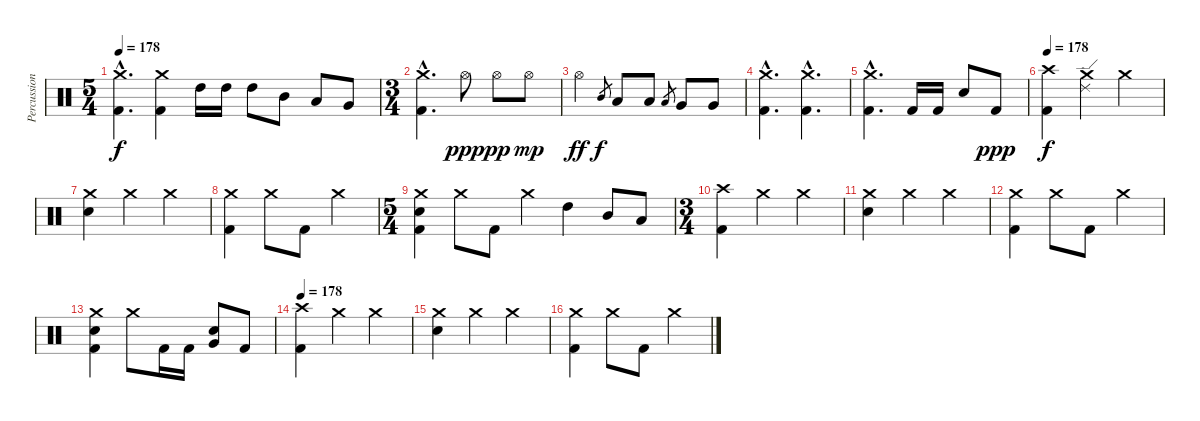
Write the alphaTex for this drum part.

\track ("Percussion" "Percussion") {instrument percussion}
\staff {score}
\articulation defaults
\ts (5 4)
\tempo 178
\clef neutral
\ks c
("Crash medium (hit)"{hac} "Kick (hit) 2"{hac}).4{d dy f} ("Crash medium (hit)" "Kick (hit) 2").4 "High Tom (hit)".16 "High Tom (hit)".16 "High Tom (hit)".8 "Mid Tom (hit)".8 "Low Tom (hit)".8 "Very Low Tom (hit)".8 |
\ts (3 4)
("Crash medium (hit)"{hac} "Kick (hit) 2"{hac}).4{d} "Hi-Hat (open)".8{dy ppp} "Hi-Hat (open)".8{dy pp} "Hi-Hat (open)".8{dy mp} |
"Hi-Hat (open)".4{dy ff} "Mid Tom (hit)".8{gr dy f} "Low Tom (hit)".8 "Low Tom (hit)".8 "Low Tom (hit)".8{gr} "Very Low Tom (hit)".8 "Very Low Tom (hit)".8 |
("Crash medium (hit)"{hac} "Kick (hit) 2"{hac}).4{d} ("Crash medium (hit)"{hac} "Kick (hit) 2"{hac}).4{d} |
("Crash medium (hit)"{hac} "Kick (hit) 2"{hac}).4{d} "Kick (hit) 2".16 "Kick (hit) 2".16 "Electric Snare (hit)".8 "Kick (hit) 2".8{dy ppp} |
\tempo 178
("Crash high (hit)" "Kick (hit) 2").4{dy f} ("Crash medium (hit)" "Ride (edge) 2").4 "Crash medium (hit)".4 |
("Crash medium (hit)" "Electric Snare (hit)").4 "Crash medium (hit)".4 "Crash medium (hit)".4 |
("Crash medium (hit)" "Kick (hit) 2").4 "Crash medium (hit)".8 "Kick (hit) 2".8 "Crash medium (hit)".4 |
\ts (5 4)
("Crash medium (hit)" "Electric Snare (hit)" "Kick (hit) 2").4 "Crash medium (hit)".8 "Kick (hit) 2".8 "Crash medium (hit)".4 "High Tom (hit)".4 "Mid Tom (hit)".8 "Low Tom (hit)".8 |
\ts (3 4)
("Crash high (hit)" "Kick (hit) 2").4 "Crash medium (hit)".4 "Crash medium (hit)".4 |
("Crash medium (hit)" "Electric Snare (hit)").4 "Crash medium (hit)".4 "Crash medium (hit)".4 |
("Crash medium (hit)" "Kick (hit) 2").4 "Crash medium (hit)".8 "Kick (hit) 2".8 "Crash medium (hit)".4 |
("Crash medium (hit)" "Electric Snare (hit)" "Kick (hit) 2").4 "Crash medium (hit)".8 "Kick (hit) 2".16 "Kick (hit) 2".16 ("Very Low Tom (hit)" "Electric Snare (hit)").8 "Kick (hit) 2".8 |
\tempo 178
("Crash high (hit)" "Kick (hit) 2").4 "Crash medium (hit)".4 "Crash medium (hit)".4 |
("Crash medium (hit)" "Electric Snare (hit)").4 "Crash medium (hit)".4 "Crash medium (hit)".4 |
("Crash medium (hit)" "Kick (hit) 2").4 "Crash medium (hit)".8 "Kick (hit) 2".8 "Crash medium (hit)".4
